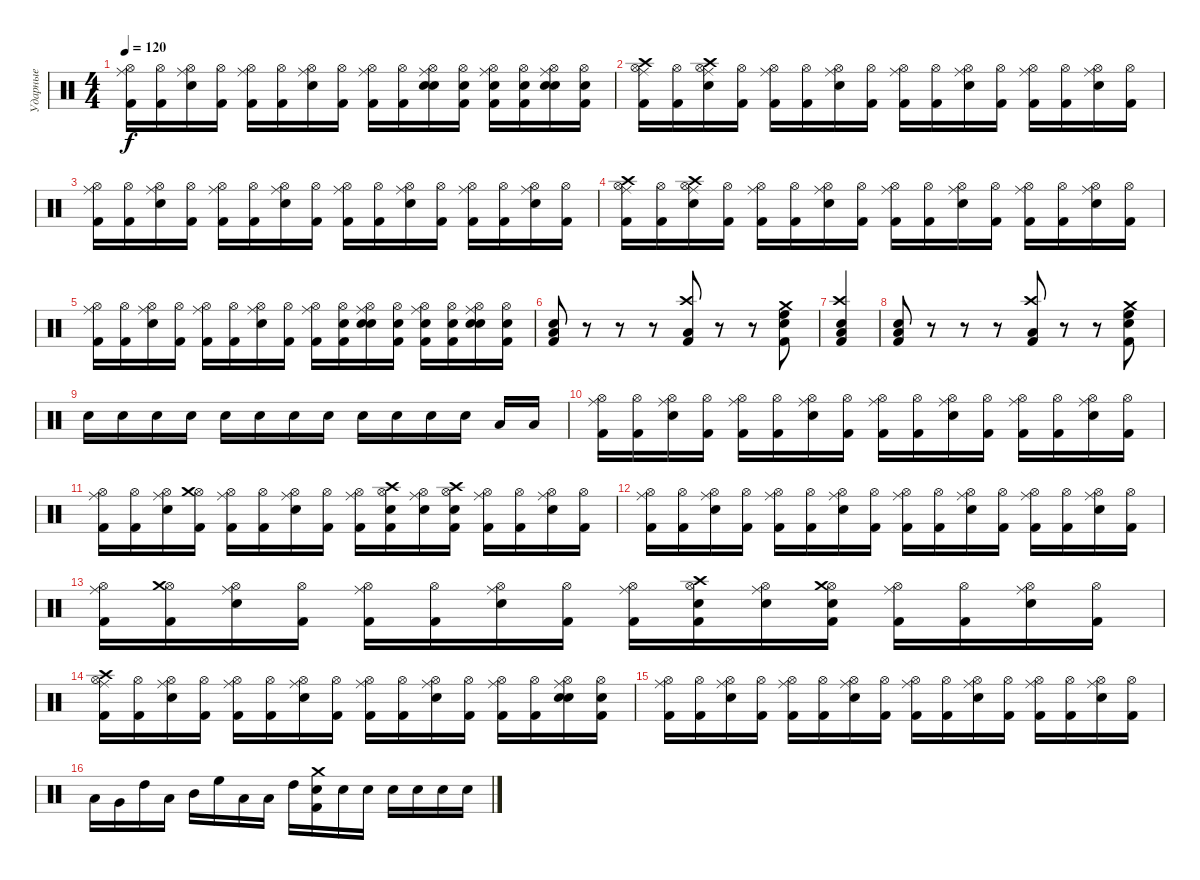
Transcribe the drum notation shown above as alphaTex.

\track ("Ударные" "Ударные") {instrument percussion}
\staff {score}
\articulation defaults
\ts (4 4)
\tempo 120
\clef neutral
\ks c
("Hi-Hat (open)" "Ride (middle)" "Kick (hit) 2").16{dy f} ("Hi-Hat (open)" "Kick (hit) 2").16 ("Hi-Hat (open)" "Ride (middle)" "Snare (hit) 2").16 ("Hi-Hat (open)" "Kick (hit) 2").16 ("Hi-Hat (open)" "Ride (middle)" "Kick (hit) 2").16 ("Hi-Hat (open)" "Kick (hit) 2").16 ("Hi-Hat (open)" "Ride (middle)" "Snare (hit) 2").16 ("Hi-Hat (open)" "Kick (hit) 2").16 ("Hi-Hat (open)" "Ride (middle)" "Kick (hit) 2").16 ("Hi-Hat (open)" "Kick (hit) 2").16 ("Hi-Hat (open)" "Ride (middle)" "Snare (hit) 2" "Electric Snare (hit)").16 ("Hi-Hat (open)" "Kick (hit) 2" "Electric Snare (hit)").16 ("Hi-Hat (open)" "Ride (middle)" "Kick (hit) 2" "Electric Snare (hit)").16 ("Hi-Hat (open)" "Kick (hit) 2" "Electric Snare (hit)").16 ("Hi-Hat (open)" "Ride (middle)" "Snare (hit) 2" "Electric Snare (hit)").16 ("Hi-Hat (open)" "Kick (hit) 2" "Electric Snare (hit)").16 |
("Hi-Hat (open)" "Ride (middle)" "Kick (hit) 2" "Crash high (hit)").16 ("Hi-Hat (open)" "Kick (hit) 2").16 ("Hi-Hat (open)" "Ride (middle)" "Snare (hit) 2" "Crash high (hit)").16 ("Hi-Hat (open)" "Kick (hit) 2").16 ("Hi-Hat (open)" "Ride (middle)" "Kick (hit) 2").16 ("Hi-Hat (open)" "Kick (hit) 2").16 ("Hi-Hat (open)" "Ride (middle)" "Snare (hit) 2").16 ("Hi-Hat (open)" "Kick (hit) 2").16 ("Hi-Hat (open)" "Ride (middle)" "Kick (hit) 2").16 ("Hi-Hat (open)" "Kick (hit) 2").16 ("Hi-Hat (open)" "Ride (middle)" "Snare (hit) 2").16 ("Hi-Hat (open)" "Kick (hit) 2").16 ("Hi-Hat (open)" "Ride (middle)" "Kick (hit) 2").16 ("Hi-Hat (open)" "Kick (hit) 2").16 ("Hi-Hat (open)" "Ride (middle)" "Snare (hit) 2").16 ("Hi-Hat (open)" "Kick (hit) 2").16 |
("Hi-Hat (open)" "Ride (middle)" "Kick (hit) 2").16 ("Hi-Hat (open)" "Kick (hit) 2").16 ("Hi-Hat (open)" "Ride (middle)" "Snare (hit) 2").16 ("Hi-Hat (open)" "Kick (hit) 2").16 ("Hi-Hat (open)" "Ride (middle)" "Kick (hit) 2").16 ("Hi-Hat (open)" "Kick (hit) 2").16 ("Hi-Hat (open)" "Ride (middle)" "Snare (hit) 2").16 ("Hi-Hat (open)" "Kick (hit) 2").16 ("Hi-Hat (open)" "Ride (middle)" "Kick (hit) 2").16 ("Hi-Hat (open)" "Kick (hit) 2").16 ("Hi-Hat (open)" "Ride (middle)" "Snare (hit) 2").16 ("Hi-Hat (open)" "Kick (hit) 2").16 ("Hi-Hat (open)" "Ride (middle)" "Kick (hit) 2").16 ("Hi-Hat (open)" "Kick (hit) 2").16 ("Hi-Hat (open)" "Ride (middle)" "Snare (hit) 2").16 ("Hi-Hat (open)" "Kick (hit) 2").16 |
("Hi-Hat (open)" "Ride (middle)" "Kick (hit) 2" "Crash high (hit)").16 ("Hi-Hat (open)" "Kick (hit) 2").16 ("Hi-Hat (open)" "Ride (middle)" "Snare (hit) 2" "Crash high (hit)").16 ("Hi-Hat (open)" "Kick (hit) 2").16 ("Hi-Hat (open)" "Ride (middle)" "Kick (hit) 2").16 ("Hi-Hat (open)" "Kick (hit) 2").16 ("Hi-Hat (open)" "Ride (middle)" "Snare (hit) 2").16 ("Hi-Hat (open)" "Kick (hit) 2").16 ("Hi-Hat (open)" "Ride (middle)" "Kick (hit) 2").16 ("Hi-Hat (open)" "Kick (hit) 2").16 ("Hi-Hat (open)" "Ride (middle)" "Snare (hit) 2").16 ("Hi-Hat (open)" "Kick (hit) 2").16 ("Hi-Hat (open)" "Ride (middle)" "Kick (hit) 2").16 ("Hi-Hat (open)" "Kick (hit) 2").16 ("Hi-Hat (open)" "Ride (middle)" "Snare (hit) 2").16 ("Hi-Hat (open)" "Kick (hit) 2").16 |
("Hi-Hat (open)" "Ride (middle)" "Kick (hit) 2").16 ("Hi-Hat (open)" "Kick (hit) 2").16 ("Hi-Hat (open)" "Ride (middle)" "Snare (hit) 2").16 ("Hi-Hat (open)" "Kick (hit) 2").16 ("Hi-Hat (open)" "Ride (middle)" "Kick (hit) 2").16 ("Hi-Hat (open)" "Kick (hit) 2").16 ("Hi-Hat (open)" "Ride (middle)" "Snare (hit) 2").16 ("Hi-Hat (open)" "Kick (hit) 2").16 ("Hi-Hat (open)" "Ride (middle)" "Kick (hit) 2").16 ("Hi-Hat (open)" "Kick (hit) 2" "Electric Snare (hit)").16 ("Hi-Hat (open)" "Ride (middle)" "Snare (hit) 2" "Electric Snare (hit)").16 ("Hi-Hat (open)" "Kick (hit) 2" "Electric Snare (hit)").16 ("Hi-Hat (open)" "Ride (middle)" "Kick (hit) 2" "Electric Snare (hit)").16 ("Hi-Hat (open)" "Kick (hit) 2" "Electric Snare (hit)").16 ("Hi-Hat (open)" "Ride (middle)" "Snare (hit) 2" "Electric Snare (hit)").16 ("Hi-Hat (open)" "Kick (hit) 2" "Electric Snare (hit)").16 |
("Low Floor Tom (hit)" "Electric Snare (hit)" "Kick (hit) 2").8 r.8 r.8 r.8 ("Kick (hit) 2" "Low Tom (hit)" "Crash high (hit)").8 r.8 r.8 ("Kick (hit) 2" "Snare (hit) 2" "High Floor Tom (hit)" "Crash medium (hit)").8 |
("Kick (hit) 2" "Snare (hit) 2" "Low Floor Tom (hit)" "Crash high (hit)").4 |
("Low Floor Tom (hit)" "Electric Snare (hit)" "Kick (hit) 2").8 r.8 r.8 r.8 ("Kick (hit) 2" "Low Tom (hit)" "Crash high (hit)").8 r.8 r.8 ("Kick (hit) 2" "Snare (hit) 2" "High Floor Tom (hit)" "Crash medium (hit)").8 |
"Electric Snare (hit)".16 "Electric Snare (hit)".16 "Electric Snare (hit)".16 "Electric Snare (hit)".16 "Electric Snare (hit)".16 "Electric Snare (hit)".16 "Electric Snare (hit)".16 "Electric Snare (hit)".16 "Electric Snare (hit)".16 "Electric Snare (hit)".16 "Electric Snare (hit)".16 "Electric Snare (hit)".16 "Low Floor Tom (hit)".16 "Low Tom (hit)".16 |
("Hi-Hat (open)" "Ride (middle)" "Kick (hit) 2").16 ("Hi-Hat (open)" "Kick (hit) 2").16 ("Hi-Hat (open)" "Ride (middle)" "Snare (hit) 2").16 ("Hi-Hat (open)" "Kick (hit) 2").16 ("Hi-Hat (open)" "Ride (middle)" "Kick (hit) 2").16 ("Hi-Hat (open)" "Kick (hit) 2").16 ("Hi-Hat (open)" "Ride (middle)" "Snare (hit) 2").16 ("Hi-Hat (open)" "Kick (hit) 2").16 ("Hi-Hat (open)" "Ride (middle)" "Kick (hit) 2").16 ("Hi-Hat (open)" "Kick (hit) 2").16 ("Hi-Hat (open)" "Ride (middle)" "Snare (hit) 2").16 ("Hi-Hat (open)" "Kick (hit) 2").16 ("Hi-Hat (open)" "Ride (middle)" "Kick (hit) 2").16 ("Hi-Hat (open)" "Kick (hit) 2").16 ("Hi-Hat (open)" "Ride (middle)" "Snare (hit) 2").16 ("Hi-Hat (open)" "Kick (hit) 2").16 |
("Hi-Hat (open)" "Ride (middle)" "Kick (hit) 2").16 ("Hi-Hat (open)" "Kick (hit) 2").16 ("Hi-Hat (open)" "Ride (middle)" "Snare (hit) 2").16 ("Hi-Hat (open)" "Kick (hit) 2" "Crash medium (hit)").16 ("Hi-Hat (open)" "Ride (middle)" "Kick (hit) 2").16 ("Hi-Hat (open)" "Kick (hit) 2").16 ("Hi-Hat (open)" "Ride (middle)" "Snare (hit) 2").16 ("Hi-Hat (open)" "Kick (hit) 2").16 ("Hi-Hat (open)" "Ride (middle)" "Kick (hit) 2").16 ("Hi-Hat (open)" "Kick (hit) 2" "Crash high (hit)" "Snare (hit) 2").16 ("Hi-Hat (open)" "Ride (middle)" "Snare (hit) 2").16 ("Hi-Hat (open)" "Kick (hit) 2" "Crash high (hit)" "Snare (hit) 2").16 ("Hi-Hat (open)" "Ride (middle)" "Kick (hit) 2").16 ("Hi-Hat (open)" "Kick (hit) 2").16 ("Hi-Hat (open)" "Ride (middle)" "Snare (hit) 2").16 ("Hi-Hat (open)" "Kick (hit) 2").16 |
("Hi-Hat (open)" "Ride (middle)" "Kick (hit) 2").16 ("Hi-Hat (open)" "Kick (hit) 2").16 ("Hi-Hat (open)" "Ride (middle)" "Snare (hit) 2").16 ("Hi-Hat (open)" "Kick (hit) 2").16 ("Hi-Hat (open)" "Ride (middle)" "Kick (hit) 2").16 ("Hi-Hat (open)" "Kick (hit) 2").16 ("Hi-Hat (open)" "Ride (middle)" "Snare (hit) 2").16 ("Hi-Hat (open)" "Kick (hit) 2").16 ("Hi-Hat (open)" "Ride (middle)" "Kick (hit) 2").16 ("Hi-Hat (open)" "Kick (hit) 2").16 ("Hi-Hat (open)" "Ride (middle)" "Snare (hit) 2").16 ("Hi-Hat (open)" "Kick (hit) 2").16 ("Hi-Hat (open)" "Ride (middle)" "Kick (hit) 2").16 ("Hi-Hat (open)" "Kick (hit) 2").16 ("Hi-Hat (open)" "Ride (middle)" "Snare (hit) 2").16 ("Hi-Hat (open)" "Kick (hit) 2").16 |
("Hi-Hat (open)" "Ride (middle)" "Kick (hit) 2").16 ("Hi-Hat (open)" "Kick (hit) 2" "Crash medium (hit)").16 ("Hi-Hat (open)" "Ride (middle)" "Snare (hit) 2").16 ("Hi-Hat (open)" "Kick (hit) 2").16 ("Hi-Hat (open)" "Ride (middle)" "Kick (hit) 2").16 ("Hi-Hat (open)" "Kick (hit) 2").16 ("Hi-Hat (open)" "Ride (middle)" "Snare (hit) 2").16 ("Hi-Hat (open)" "Kick (hit) 2").16 ("Hi-Hat (open)" "Ride (middle)" "Kick (hit) 2").16 ("Hi-Hat (open)" "Kick (hit) 2" "Electric Snare (hit)" "Crash high (hit)").16 ("Hi-Hat (open)" "Ride (middle)" "Snare (hit) 2").16 ("Hi-Hat (open)" "Kick (hit) 2" "Crash medium (hit)" "Electric Snare (hit)").16 ("Hi-Hat (open)" "Ride (middle)" "Kick (hit) 2").16 ("Hi-Hat (open)" "Kick (hit) 2").16 ("Hi-Hat (open)" "Ride (middle)" "Snare (hit) 2").16 ("Hi-Hat (open)" "Kick (hit) 2").16 |
("Hi-Hat (open)" "Ride (middle)" "Kick (hit) 2" "Crash high (hit)").16 ("Hi-Hat (open)" "Kick (hit) 2").16 ("Hi-Hat (open)" "Ride (middle)" "Snare (hit) 2").16 ("Hi-Hat (open)" "Kick (hit) 2").16 ("Hi-Hat (open)" "Ride (middle)" "Kick (hit) 2").16 ("Hi-Hat (open)" "Kick (hit) 2").16 ("Hi-Hat (open)" "Ride (middle)" "Snare (hit) 2").16 ("Hi-Hat (open)" "Kick (hit) 2").16 ("Hi-Hat (open)" "Ride (middle)" "Kick (hit) 2").16 ("Hi-Hat (open)" "Kick (hit) 2").16 ("Hi-Hat (open)" "Ride (middle)" "Snare (hit) 2").16 ("Hi-Hat (open)" "Kick (hit) 2").16 ("Hi-Hat (open)" "Ride (middle)" "Kick (hit) 2").16 ("Hi-Hat (open)" "Kick (hit) 2").16 ("Hi-Hat (open)" "Ride (middle)" "Snare (hit) 2" "Electric Snare (hit)").16 ("Hi-Hat (open)" "Kick (hit) 2" "Electric Snare (hit)").16 |
("Hi-Hat (open)" "Ride (middle)" "Kick (hit) 2").16 ("Hi-Hat (open)" "Kick (hit) 2").16 ("Hi-Hat (open)" "Ride (middle)" "Snare (hit) 2").16 ("Hi-Hat (open)" "Kick (hit) 2").16 ("Hi-Hat (open)" "Ride (middle)" "Kick (hit) 2").16 ("Hi-Hat (open)" "Kick (hit) 2").16 ("Hi-Hat (open)" "Ride (middle)" "Snare (hit) 2").16 ("Hi-Hat (open)" "Kick (hit) 2").16 ("Hi-Hat (open)" "Ride (middle)" "Kick (hit) 2").16 ("Hi-Hat (open)" "Kick (hit) 2").16 ("Hi-Hat (open)" "Ride (middle)" "Snare (hit) 2").16 ("Hi-Hat (open)" "Kick (hit) 2").16 ("Hi-Hat (open)" "Ride (middle)" "Kick (hit) 2").16 ("Hi-Hat (open)" "Kick (hit) 2").16 ("Hi-Hat (open)" "Ride (middle)" "Snare (hit) 2").16 ("Hi-Hat (open)" "Kick (hit) 2").16 |
"Low Floor Tom (hit)".16 "Very Low Tom (hit)".16 "High Tom (hit)".16 "Low Tom (hit)".16 "Mid Tom (hit)".16 "High Floor Tom (hit)".16 "Low Floor Tom (hit)".16 "Low Tom (hit)".16 "High Tom (hit)".16 ("Electric Snare (hit)" "Kick (hit) 2" "Crash medium (hit)").16 "Electric Snare (hit)".16 "Electric Snare (hit)".16 "Electric Snare (hit)".16 "Electric Snare (hit)".16 "Electric Snare (hit)".16 "Electric Snare (hit)".16
